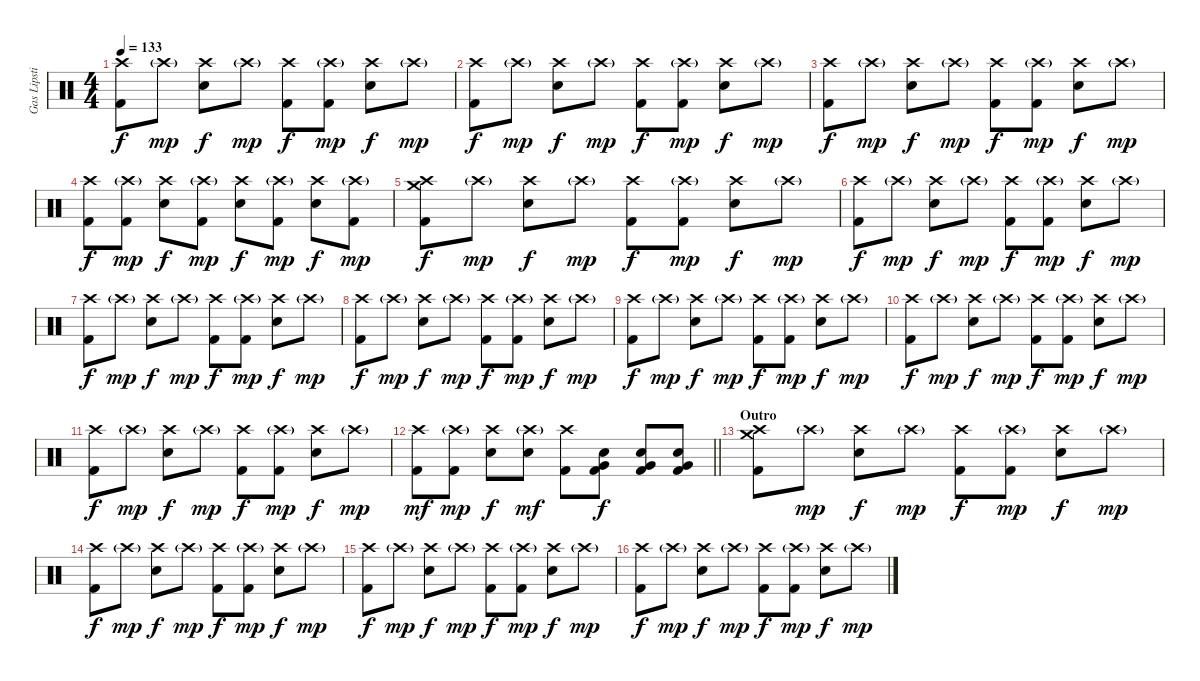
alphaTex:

\track ("Gas Lipstick (Drums)" "Gas Lipsti") {instrument percussion}
\staff {score}
\articulation defaults
\ts (4 4)
\tempo 133
\clef neutral
\ks c
("Crash high (hit)" "Kick (hit) 2").8{dy f} "Crash high (hit)"{g}.8{dy mp} ("Crash high (hit)" "Snare (hit) 2").8{dy f} "Crash high (hit)"{g}.8{dy mp} ("Crash high (hit)" "Kick (hit) 2").8{dy f} ("Crash high (hit)"{g} "Kick (hit) 2").8{dy mp} ("Crash high (hit)" "Snare (hit) 2").8{dy f} "Crash high (hit)"{g}.8{dy mp} |
("Crash high (hit)" "Kick (hit) 2").8{dy f} "Crash high (hit)"{g}.8{dy mp} ("Crash high (hit)" "Snare (hit) 2").8{dy f} "Crash high (hit)"{g}.8{dy mp} ("Crash high (hit)" "Kick (hit) 2").8{dy f} ("Crash high (hit)"{g} "Kick (hit) 2").8{dy mp} ("Crash high (hit)" "Snare (hit) 2").8{dy f} "Crash high (hit)"{g}.8{dy mp} |
("Crash high (hit)" "Kick (hit) 2").8{dy f} "Crash high (hit)"{g}.8{dy mp} ("Crash high (hit)" "Snare (hit) 2").8{dy f} "Crash high (hit)"{g}.8{dy mp} ("Crash high (hit)" "Kick (hit) 2").8{dy f} ("Crash high (hit)"{g} "Kick (hit) 2").8{dy mp} ("Crash high (hit)" "Snare (hit) 2").8{dy f} "Crash high (hit)"{g}.8{dy mp} |
("Crash high (hit)" "Kick (hit) 2").8{dy f} ("Crash high (hit)"{g} "Kick (hit) 2").8{dy mp} ("Crash high (hit)" "Snare (hit) 2").8{dy f} ("Crash high (hit)"{g} "Kick (hit) 2").8{dy mp} ("Crash high (hit)" "Snare (hit) 2").8{dy f} ("Crash high (hit)"{g} "Kick (hit) 2").8{dy mp} ("Crash high (hit)" "Snare (hit) 2").8{dy f} ("Crash high (hit)"{g} "Kick (hit) 2").8{dy mp} |
("Crash medium (hit)" "Crash high (hit)" "Kick (hit) 2").8{dy f} "Crash high (hit)"{g}.8{dy mp} ("Crash high (hit)" "Snare (hit) 2").8{dy f} "Crash high (hit)"{g}.8{dy mp} ("Crash high (hit)" "Kick (hit) 2").8{dy f} ("Crash high (hit)"{g} "Kick (hit) 2").8{dy mp} ("Crash high (hit)" "Snare (hit) 2").8{dy f} "Crash high (hit)"{g}.8{dy mp} |
("Crash high (hit)" "Kick (hit) 2").8{dy f} "Crash high (hit)"{g}.8{dy mp} ("Crash high (hit)" "Snare (hit) 2").8{dy f} "Crash high (hit)"{g}.8{dy mp} ("Crash high (hit)" "Kick (hit) 2").8{dy f} ("Crash high (hit)"{g} "Kick (hit) 2").8{dy mp} ("Crash high (hit)" "Snare (hit) 2").8{dy f} "Crash high (hit)"{g}.8{dy mp} |
("Crash high (hit)" "Kick (hit) 2").8{dy f} "Crash high (hit)"{g}.8{dy mp} ("Crash high (hit)" "Snare (hit) 2").8{dy f} "Crash high (hit)"{g}.8{dy mp} ("Crash high (hit)" "Kick (hit) 2").8{dy f} ("Crash high (hit)"{g} "Kick (hit) 2").8{dy mp} ("Crash high (hit)" "Snare (hit) 2").8{dy f} "Crash high (hit)"{g}.8{dy mp} |
("Crash high (hit)" "Kick (hit) 2").8{dy f} "Crash high (hit)"{g}.8{dy mp} ("Crash high (hit)" "Snare (hit) 2").8{dy f} "Crash high (hit)"{g}.8{dy mp} ("Crash high (hit)" "Kick (hit) 2").8{dy f} ("Crash high (hit)"{g} "Kick (hit) 2").8{dy mp} ("Crash high (hit)" "Snare (hit) 2").8{dy f} "Crash high (hit)"{g}.8{dy mp} |
("Crash high (hit)" "Kick (hit) 2").8{dy f} "Crash high (hit)"{g}.8{dy mp} ("Crash high (hit)" "Snare (hit) 2").8{dy f} "Crash high (hit)"{g}.8{dy mp} ("Crash high (hit)" "Kick (hit) 2").8{dy f} ("Crash high (hit)"{g} "Kick (hit) 2").8{dy mp} ("Crash high (hit)" "Snare (hit) 2").8{dy f} "Crash high (hit)"{g}.8{dy mp} |
("Crash high (hit)" "Kick (hit) 2").8{dy f} "Crash high (hit)"{g}.8{dy mp} ("Crash high (hit)" "Snare (hit) 2").8{dy f} "Crash high (hit)"{g}.8{dy mp} ("Crash high (hit)" "Kick (hit) 2").8{dy f} ("Crash high (hit)"{g} "Kick (hit) 2").8{dy mp} ("Crash high (hit)" "Snare (hit) 2").8{dy f} "Crash high (hit)"{g}.8{dy mp} |
("Crash high (hit)" "Kick (hit) 2").8{dy f} "Crash high (hit)"{g}.8{dy mp} ("Crash high (hit)" "Snare (hit) 2").8{dy f} "Crash high (hit)"{g}.8{dy mp} ("Crash high (hit)" "Kick (hit) 2").8{dy f} ("Crash high (hit)"{g} "Kick (hit) 2").8{dy mp} ("Crash high (hit)" "Snare (hit) 2").8{dy f} "Crash high (hit)"{g}.8{dy mp} |
\barLineRight lightlight
("Crash high (hit)" "Kick (hit) 2").8{dy mf} ("Crash high (hit)"{g} "Kick (hit) 2").8{dy mp} ("Crash high (hit)" "Snare (hit) 2").8{dy f} ("Crash high (hit)"{g} "Snare (hit) 2").8{dy mf} ("Crash high (hit)" "Kick (hit) 2").8 ("Very Low Tom (hit)" "Snare (hit) 2" "Kick (hit) 2").8{dy f} ("Very Low Tom (hit)" "Snare (hit) 2" "Kick (hit) 2").8 ("Very Low Tom (hit)" "Snare (hit) 2" "Kick (hit) 2").8 |
\section ("" "Outro")
("Crash medium (hit)" "Crash high (hit)" "Kick (hit) 2").8 "Crash high (hit)"{g}.8{dy mp} ("Crash high (hit)" "Snare (hit) 2").8{dy f} "Crash high (hit)"{g}.8{dy mp} ("Crash high (hit)" "Kick (hit) 2").8{dy f} ("Crash high (hit)"{g} "Kick (hit) 2").8{dy mp} ("Crash high (hit)" "Snare (hit) 2").8{dy f} "Crash high (hit)"{g}.8{dy mp} |
("Crash high (hit)" "Kick (hit) 2").8{dy f} "Crash high (hit)"{g}.8{dy mp} ("Crash high (hit)" "Snare (hit) 2").8{dy f} "Crash high (hit)"{g}.8{dy mp} ("Crash high (hit)" "Kick (hit) 2").8{dy f} ("Crash high (hit)"{g} "Kick (hit) 2").8{dy mp} ("Crash high (hit)" "Snare (hit) 2").8{dy f} "Crash high (hit)"{g}.8{dy mp} |
("Crash high (hit)" "Kick (hit) 2").8{dy f} "Crash high (hit)"{g}.8{dy mp} ("Crash high (hit)" "Snare (hit) 2").8{dy f} "Crash high (hit)"{g}.8{dy mp} ("Crash high (hit)" "Kick (hit) 2").8{dy f} ("Crash high (hit)"{g} "Kick (hit) 2").8{dy mp} ("Crash high (hit)" "Snare (hit) 2").8{dy f} "Crash high (hit)"{g}.8{dy mp} |
("Crash high (hit)" "Kick (hit) 2").8{dy f} "Crash high (hit)"{g}.8{dy mp} ("Crash high (hit)" "Snare (hit) 2").8{dy f} "Crash high (hit)"{g}.8{dy mp} ("Crash high (hit)" "Kick (hit) 2").8{dy f} ("Crash high (hit)"{g} "Kick (hit) 2").8{dy mp} ("Crash high (hit)" "Snare (hit) 2").8{dy f} "Crash high (hit)"{g}.8{dy mp}
